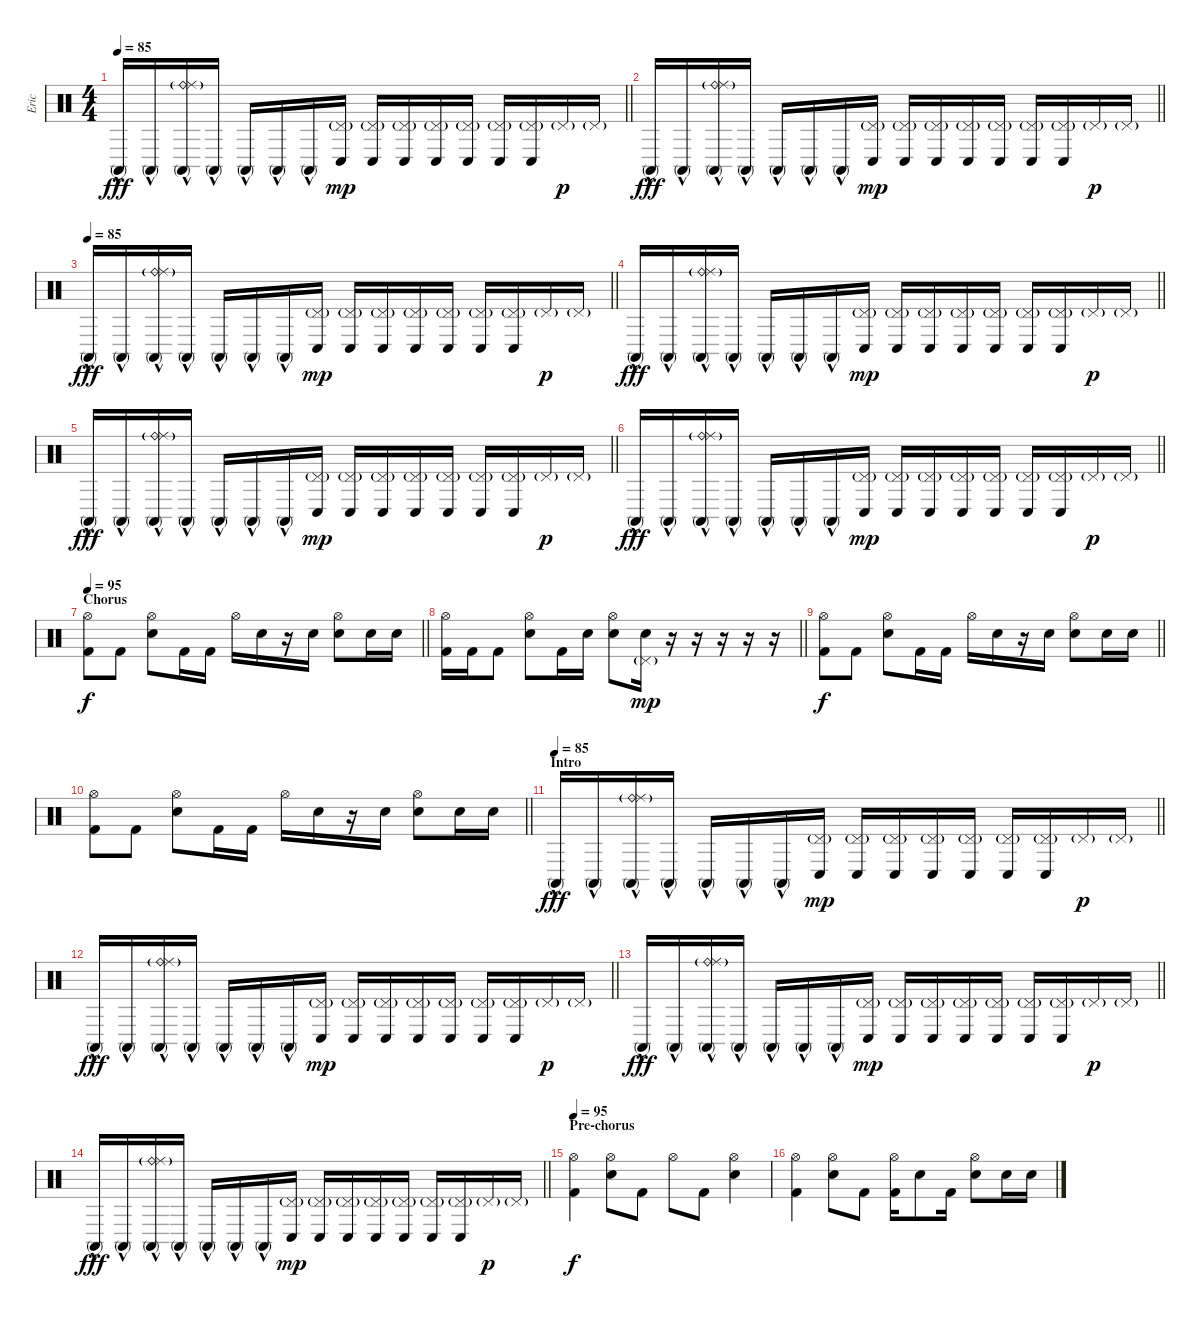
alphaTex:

\track ("Eric" "Eric") {instrument percussion}
\staff {score}
\articulation defaults
\ts (4 4)
\tempo 85
\clef neutral
\barLineRight lightlight
\ks c "Conga high (mute)"{hac}.16{dy fff} "Conga high (mute)"{hac}.16
("Ride (bell)"{g} "Ride (middle)"{g} "Conga high (mute)"{hac}).16 "Conga high (mute)"{hac}.16 "Conga high (mute)"{hac}.16 "Conga high (mute)"{hac}.16 "Conga high (mute)"{hac}.16 ("Pedal Hi-Hat (hit)"{g} "Conga low (hit)").16{dy mp} ("Pedal Hi-Hat (hit)"{g} "Conga low (hit)").16 ("Pedal Hi-Hat (hit)"{g} "Conga low (hit)").16 ("Pedal Hi-Hat (hit)"{g} "Conga low (hit)").16 ("Pedal Hi-Hat (hit)"{g} "Conga low (hit)").16 ("Pedal Hi-Hat (hit)"{g} "Conga low (hit)").16 ("Pedal Hi-Hat (hit)"{g} "Conga low (hit)").16 "Pedal Hi-Hat (hit)"{g}.16{dy p} "Pedal Hi-Hat (hit)"{g}.16 |
\barLineRight lightlight "Conga high (mute)"{hac}.16{dy fff} "Conga high (mute)"{hac}.16
("Ride (bell)"{g} "Ride (middle)"{g} "Conga high (mute)"{hac}).16 "Conga high (mute)"{hac}.16 "Conga high (mute)"{hac}.16 "Conga high (mute)"{hac}.16 "Conga high (mute)"{hac}.16 ("Pedal Hi-Hat (hit)"{g} "Conga low (hit)").16{dy mp} ("Pedal Hi-Hat (hit)"{g} "Conga low (hit)").16 ("Pedal Hi-Hat (hit)"{g} "Conga low (hit)").16 ("Pedal Hi-Hat (hit)"{g} "Conga low (hit)").16 ("Pedal Hi-Hat (hit)"{g} "Conga low (hit)").16 ("Pedal Hi-Hat (hit)"{g} "Conga low (hit)").16 ("Pedal Hi-Hat (hit)"{g} "Conga low (hit)").16 "Pedal Hi-Hat (hit)"{g}.16{dy p} "Pedal Hi-Hat (hit)"{g}.16 |
\tempo 85
\barLineRight lightlight "Conga high (mute)"{hac}.16{dy fff} "Conga high (mute)"{hac}.16
("Ride (bell)"{g} "Ride (middle)"{g} "Conga high (mute)"{hac}).16 "Conga high (mute)"{hac}.16 "Conga high (mute)"{hac}.16 "Conga high (mute)"{hac}.16 "Conga high (mute)"{hac}.16 ("Pedal Hi-Hat (hit)"{g} "Conga low (hit)").16{dy mp} ("Pedal Hi-Hat (hit)"{g} "Conga low (hit)").16 ("Pedal Hi-Hat (hit)"{g} "Conga low (hit)").16 ("Pedal Hi-Hat (hit)"{g} "Conga low (hit)").16 ("Pedal Hi-Hat (hit)"{g} "Conga low (hit)").16 ("Pedal Hi-Hat (hit)"{g} "Conga low (hit)").16 ("Pedal Hi-Hat (hit)"{g} "Conga low (hit)").16 "Pedal Hi-Hat (hit)"{g}.16{dy p} "Pedal Hi-Hat (hit)"{g}.16 |
\barLineRight lightlight "Conga high (mute)"{hac}.16{dy fff} "Conga high (mute)"{hac}.16
("Ride (bell)"{g} "Ride (middle)"{g} "Conga high (mute)"{hac}).16 "Conga high (mute)"{hac}.16 "Conga high (mute)"{hac}.16 "Conga high (mute)"{hac}.16 "Conga high (mute)"{hac}.16 ("Pedal Hi-Hat (hit)"{g} "Conga low (hit)").16{dy mp} ("Pedal Hi-Hat (hit)"{g} "Conga low (hit)").16 ("Pedal Hi-Hat (hit)"{g} "Conga low (hit)").16 ("Pedal Hi-Hat (hit)"{g} "Conga low (hit)").16 ("Pedal Hi-Hat (hit)"{g} "Conga low (hit)").16 ("Pedal Hi-Hat (hit)"{g} "Conga low (hit)").16 ("Pedal Hi-Hat (hit)"{g} "Conga low (hit)").16 "Pedal Hi-Hat (hit)"{g}.16{dy p} "Pedal Hi-Hat (hit)"{g}.16 |
\barLineRight lightlight "Conga high (mute)"{hac}.16{dy fff} "Conga high (mute)"{hac}.16
("Ride (bell)"{g} "Ride (middle)"{g} "Conga high (mute)"{hac}).16 "Conga high (mute)"{hac}.16 "Conga high (mute)"{hac}.16 "Conga high (mute)"{hac}.16 "Conga high (mute)"{hac}.16 ("Pedal Hi-Hat (hit)"{g} "Conga low (hit)").16{dy mp} ("Pedal Hi-Hat (hit)"{g} "Conga low (hit)").16 ("Pedal Hi-Hat (hit)"{g} "Conga low (hit)").16 ("Pedal Hi-Hat (hit)"{g} "Conga low (hit)").16 ("Pedal Hi-Hat (hit)"{g} "Conga low (hit)").16 ("Pedal Hi-Hat (hit)"{g} "Conga low (hit)").16 ("Pedal Hi-Hat (hit)"{g} "Conga low (hit)").16 "Pedal Hi-Hat (hit)"{g}.16{dy p} "Pedal Hi-Hat (hit)"{g}.16 |
\barLineRight lightlight "Conga high (mute)"{hac}.16{dy fff} "Conga high (mute)"{hac}.16
("Ride (bell)"{g} "Ride (middle)"{g} "Conga high (mute)"{hac}).16 "Conga high (mute)"{hac}.16 "Conga high (mute)"{hac}.16 "Conga high (mute)"{hac}.16 "Conga high (mute)"{hac}.16 ("Pedal Hi-Hat (hit)"{g} "Conga low (hit)").16{dy mp} ("Pedal Hi-Hat (hit)"{g} "Conga low (hit)").16 ("Pedal Hi-Hat (hit)"{g} "Conga low (hit)").16 ("Pedal Hi-Hat (hit)"{g} "Conga low (hit)").16 ("Pedal Hi-Hat (hit)"{g} "Conga low (hit)").16 ("Pedal Hi-Hat (hit)"{g} "Conga low (hit)").16 ("Pedal Hi-Hat (hit)"{g} "Conga low (hit)").16 "Pedal Hi-Hat (hit)"{g}.16{dy p} "Pedal Hi-Hat (hit)"{g}.16 |
\section ("" "Chorus")
\tempo 95
\barLineRight lightlight
("Hi-Hat (open)" "Kick (hit) 2").8{dy f} "Kick (hit) 2".8 ("Hi-Hat (open)" "Electric Snare (hit)").8 "Kick (hit) 2".16 "Kick (hit) 2".16 "Hi-Hat (open)".16 "Electric Snare (hit)".16 r.16 "Electric Snare (hit)".16 ("Hi-Hat (open)" "Electric Snare (hit)").8 "Electric Snare (hit)".16 "Electric Snare (hit)".16 |
\barLineRight lightlight
("Hi-Hat (open)" "Kick (hit) 2").16 "Kick (hit) 2".16 "Kick (hit) 2".8 ("Hi-Hat (open)" "Electric Snare (hit)").8 "Kick (hit) 2".16 "Electric Snare (hit)".16 ("Hi-Hat (open)" "Electric Snare (hit)").8 ("Pedal Hi-Hat (hit)"{g} "Electric Snare (hit)").16{dy mp} r.16 r.16 r.16 r.16 r.16 |
\barLineRight lightlight
("Hi-Hat (open)" "Kick (hit) 2").8{dy f} "Kick (hit) 2".8 ("Hi-Hat (open)" "Electric Snare (hit)").8 "Kick (hit) 2".16 "Kick (hit) 2".16 "Hi-Hat (open)".16 "Electric Snare (hit)".16 r.16 "Electric Snare (hit)".16 ("Hi-Hat (open)" "Electric Snare (hit)").8 "Electric Snare (hit)".16 "Electric Snare (hit)".16 |
\barLineRight lightlight
("Hi-Hat (open)" "Kick (hit) 2").8 "Kick (hit) 2".8 ("Hi-Hat (open)" "Electric Snare (hit)").8 "Kick (hit) 2".16 "Kick (hit) 2".16 "Hi-Hat (open)".16 "Electric Snare (hit)".16 r.16 "Electric Snare (hit)".16 ("Hi-Hat (open)" "Electric Snare (hit)").8 "Electric Snare (hit)".16 "Electric Snare (hit)".16 |
\section ("" "Intro")
\tempo 85
\barLineRight lightlight "Conga high (mute)"{hac}.16{dy fff} "Conga high (mute)"{hac}.16
("Ride (bell)"{g} "Ride (middle)"{g} "Conga high (mute)"{hac}).16 "Conga high (mute)"{hac}.16 "Conga high (mute)"{hac}.16 "Conga high (mute)"{hac}.16 "Conga high (mute)"{hac}.16 ("Pedal Hi-Hat (hit)"{g} "Conga low (hit)").16{dy mp} ("Pedal Hi-Hat (hit)"{g} "Conga low (hit)").16 ("Pedal Hi-Hat (hit)"{g} "Conga low (hit)").16 ("Pedal Hi-Hat (hit)"{g} "Conga low (hit)").16 ("Pedal Hi-Hat (hit)"{g} "Conga low (hit)").16 ("Pedal Hi-Hat (hit)"{g} "Conga low (hit)").16 ("Pedal Hi-Hat (hit)"{g} "Conga low (hit)").16 "Pedal Hi-Hat (hit)"{g}.16{dy p} "Pedal Hi-Hat (hit)"{g}.16 |
\barLineRight lightlight "Conga high (mute)"{hac}.16{dy fff} "Conga high (mute)"{hac}.16
("Ride (bell)"{g} "Ride (middle)"{g} "Conga high (mute)"{hac}).16 "Conga high (mute)"{hac}.16 "Conga high (mute)"{hac}.16 "Conga high (mute)"{hac}.16 "Conga high (mute)"{hac}.16 ("Pedal Hi-Hat (hit)"{g} "Conga low (hit)").16{dy mp} ("Pedal Hi-Hat (hit)"{g} "Conga low (hit)").16 ("Pedal Hi-Hat (hit)"{g} "Conga low (hit)").16 ("Pedal Hi-Hat (hit)"{g} "Conga low (hit)").16 ("Pedal Hi-Hat (hit)"{g} "Conga low (hit)").16 ("Pedal Hi-Hat (hit)"{g} "Conga low (hit)").16 ("Pedal Hi-Hat (hit)"{g} "Conga low (hit)").16 "Pedal Hi-Hat (hit)"{g}.16{dy p} "Pedal Hi-Hat (hit)"{g}.16 |
\barLineRight lightlight "Conga high (mute)"{hac}.16{dy fff} "Conga high (mute)"{hac}.16
("Ride (bell)"{g} "Ride (middle)"{g} "Conga high (mute)"{hac}).16 "Conga high (mute)"{hac}.16 "Conga high (mute)"{hac}.16 "Conga high (mute)"{hac}.16 "Conga high (mute)"{hac}.16 ("Pedal Hi-Hat (hit)"{g} "Conga low (hit)").16{dy mp} ("Pedal Hi-Hat (hit)"{g} "Conga low (hit)").16 ("Pedal Hi-Hat (hit)"{g} "Conga low (hit)").16 ("Pedal Hi-Hat (hit)"{g} "Conga low (hit)").16 ("Pedal Hi-Hat (hit)"{g} "Conga low (hit)").16 ("Pedal Hi-Hat (hit)"{g} "Conga low (hit)").16 ("Pedal Hi-Hat (hit)"{g} "Conga low (hit)").16 "Pedal Hi-Hat (hit)"{g}.16{dy p} "Pedal Hi-Hat (hit)"{g}.16 |
\barLineRight lightlight "Conga high (mute)"{hac}.16{dy fff} "Conga high (mute)"{hac}.16
("Ride (bell)"{g} "Ride (middle)"{g} "Conga high (mute)"{hac}).16 "Conga high (mute)"{hac}.16 "Conga high (mute)"{hac}.16 "Conga high (mute)"{hac}.16 "Conga high (mute)"{hac}.16 ("Pedal Hi-Hat (hit)"{g} "Conga low (hit)").16{dy mp} ("Pedal Hi-Hat (hit)"{g} "Conga low (hit)").16 ("Pedal Hi-Hat (hit)"{g} "Conga low (hit)").16 ("Pedal Hi-Hat (hit)"{g} "Conga low (hit)").16 ("Pedal Hi-Hat (hit)"{g} "Conga low (hit)").16 ("Pedal Hi-Hat (hit)"{g} "Conga low (hit)").16 ("Pedal Hi-Hat (hit)"{g} "Conga low (hit)").16 "Pedal Hi-Hat (hit)"{g}.16{dy p} "Pedal Hi-Hat (hit)"{g}.16 |
\section ("" "Pre-chorus")
\tempo 95
("Hi-Hat (open)" "Kick (hit) 2").4{dy f} ("Hi-Hat (open)" "Electric Snare (hit)").8 "Kick (hit) 2".8 "Hi-Hat (open)".8 "Kick (hit) 2".8 ("Hi-Hat (open)" "Electric Snare (hit)").4 |
("Hi-Hat (open)" "Kick (hit) 2").4 ("Hi-Hat (open)" "Electric Snare (hit)").8 "Kick (hit) 2".8 ("Hi-Hat (open)" "Kick (hit) 2").16 "Electric Snare (hit)".8 "Kick (hit) 2".16 ("Hi-Hat (open)" "Electric Snare (hit)").8 "Electric Snare (hit)".16 "Electric Snare (hit)".16
